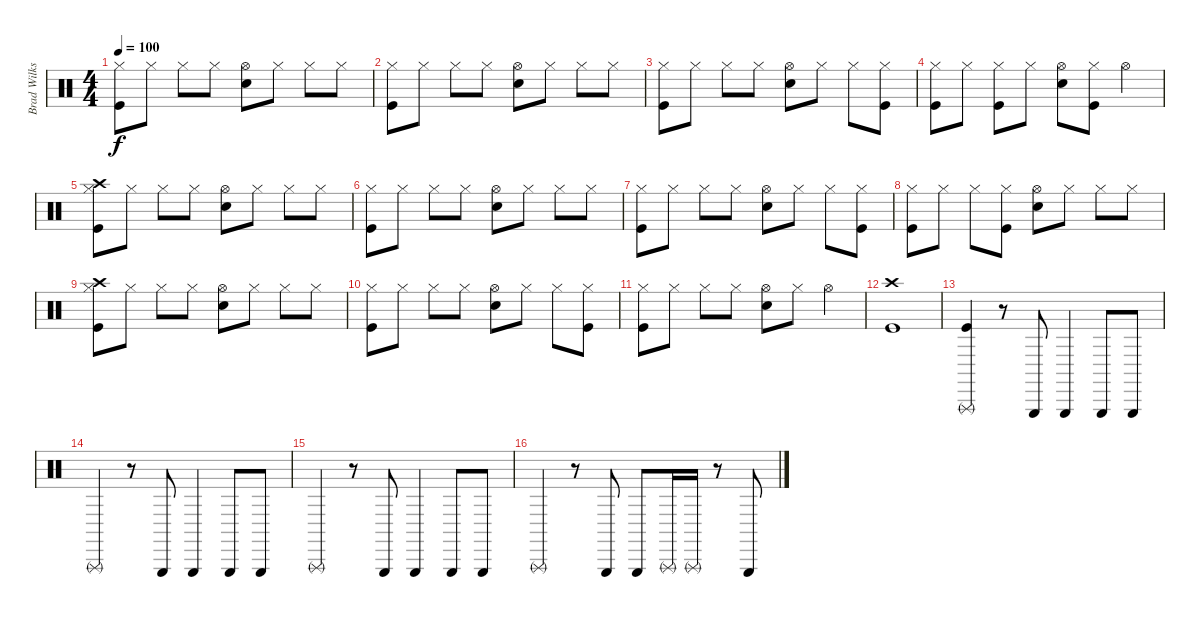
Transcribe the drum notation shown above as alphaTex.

\track ("Brad Wilks (Percussion)" "Brad Wilks") {instrument percussion}
\staff {score}
\articulation defaults
\ts (4 4)
\tempo 100
\clef neutral
\ks c
("Hi-Hat (closed)" "Kick (hit)").8{dy f} "Hi-Hat (closed)".8 "Hi-Hat (closed)".8 "Hi-Hat (closed)".8 ("Hi-Hat (open)" "Electric Snare (hit)").8 "Hi-Hat (closed)".8 "Hi-Hat (closed)".8 "Hi-Hat (closed)".8 |
("Hi-Hat (closed)" "Kick (hit)").8 "Hi-Hat (closed)".8 "Hi-Hat (closed)".8 "Hi-Hat (closed)".8 ("Hi-Hat (open)" "Electric Snare (hit)").8 "Hi-Hat (closed)".8 "Hi-Hat (closed)".8 "Hi-Hat (closed)".8 |
("Hi-Hat (closed)" "Kick (hit)").8 "Hi-Hat (closed)".8 "Hi-Hat (closed)".8 "Hi-Hat (closed)".8 ("Hi-Hat (open)" "Electric Snare (hit)").8 "Hi-Hat (closed)".8 "Hi-Hat (closed)".8 ("Hi-Hat (closed)" "Kick (hit)").8 |
("Hi-Hat (closed)" "Kick (hit)").8 "Hi-Hat (closed)".8 ("Hi-Hat (closed)" "Kick (hit)").8 "Hi-Hat (closed)".8 ("Hi-Hat (open)" "Electric Snare (hit)").8 ("Hi-Hat (closed)" "Kick (hit)").8 "Hi-Hat (open)".4 |
("Crash high (hit)" "Hi-Hat (closed)" "Kick (hit)").8 "Hi-Hat (closed)".8 "Hi-Hat (closed)".8 "Hi-Hat (closed)".8 ("Hi-Hat (open)" "Electric Snare (hit)").8 "Hi-Hat (closed)".8 "Hi-Hat (closed)".8 "Hi-Hat (closed)".8 |
("Hi-Hat (closed)" "Kick (hit)").8 "Hi-Hat (closed)".8 "Hi-Hat (closed)".8 "Hi-Hat (closed)".8 ("Hi-Hat (open)" "Electric Snare (hit)").8 "Hi-Hat (closed)".8 "Hi-Hat (closed)".8 "Hi-Hat (closed)".8 |
("Hi-Hat (closed)" "Kick (hit)").8 "Hi-Hat (closed)".8 "Hi-Hat (closed)".8 "Hi-Hat (closed)".8 ("Hi-Hat (open)" "Electric Snare (hit)").8 "Hi-Hat (closed)".8 "Hi-Hat (closed)".8 ("Hi-Hat (closed)" "Kick (hit)").8 |
("Hi-Hat (closed)" "Kick (hit)").8 "Hi-Hat (closed)".8 "Hi-Hat (closed)".8 ("Hi-Hat (closed)" "Kick (hit)").8 ("Hi-Hat (open)" "Electric Snare (hit)").8 "Hi-Hat (closed)".8 "Hi-Hat (closed)".8 "Hi-Hat (closed)".8 |
("Crash high (hit)" "Hi-Hat (closed)" "Kick (hit)").8 "Hi-Hat (closed)".8 "Hi-Hat (closed)".8 "Hi-Hat (closed)".8 ("Hi-Hat (open)" "Electric Snare (hit)").8 "Hi-Hat (closed)".8 "Hi-Hat (closed)".8 "Hi-Hat (closed)".8 |
("Hi-Hat (closed)" "Kick (hit)").8 "Hi-Hat (closed)".8 "Hi-Hat (closed)".8 "Hi-Hat (closed)".8 ("Hi-Hat (open)" "Electric Snare (hit)").8 "Hi-Hat (closed)".8 "Hi-Hat (closed)".8 ("Hi-Hat (closed)" "Kick (hit)").8 |
("Hi-Hat (closed)" "Kick (hit)").8 "Hi-Hat (closed)".8 "Hi-Hat (closed)".8 "Hi-Hat (closed)".8 ("Hi-Hat (open)" "Electric Snare (hit)").8 "Hi-Hat (closed)".8 "Hi-Hat (open)".4 |
("Crash high (hit)" "Kick (hit)").1 |
("Triangle (rnute)" "Kick (hit)").4 r.8 "Triangle (hit)".8 "Triangle (hit)".4 "Triangle (hit)".8 "Triangle (hit)".8 |
"Triangle (rnute)".4 r.8 "Triangle (hit)".8 "Triangle (hit)".4 "Triangle (hit)".8 "Triangle (hit)".8 |
"Triangle (rnute)".4 r.8 "Triangle (hit)".8 "Triangle (hit)".4 "Triangle (hit)".8 "Triangle (hit)".8 |
"Triangle (rnute)".4 r.8 "Triangle (hit)".8 "Triangle (hit)".8 "Triangle (rnute)".16 "Triangle (rnute)".16 r.8 "Triangle (hit)".8
